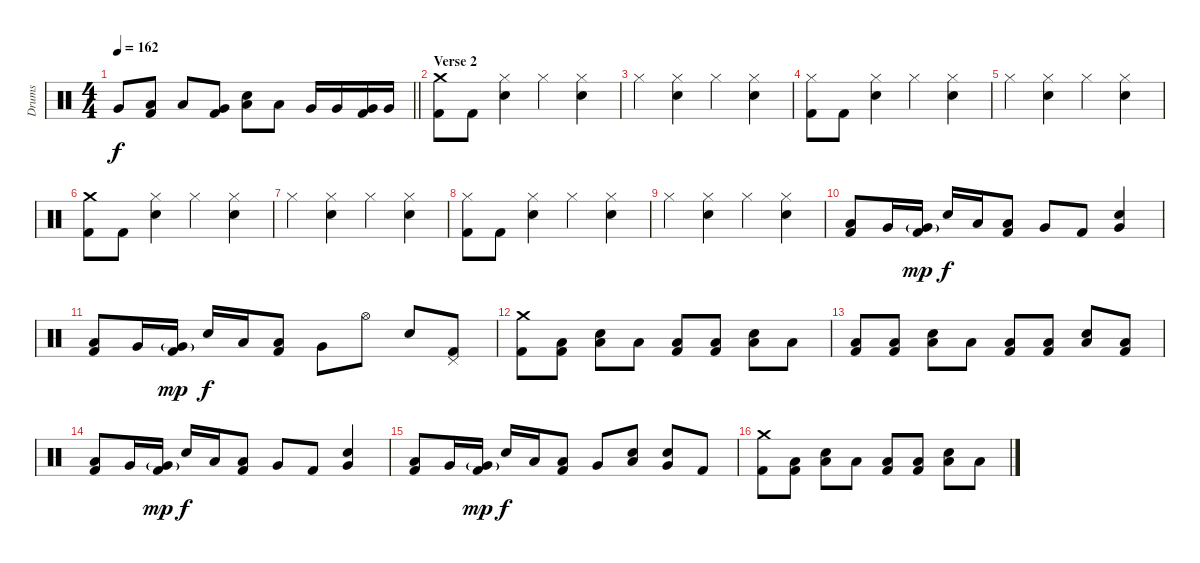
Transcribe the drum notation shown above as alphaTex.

\track ("Drums" "Drums") {instrument percussion}
\staff {score}
\articulation defaults
\ts (4 4)
\tempo 162
\clef neutral
\barLineRight lightlight
\ks c "Very Low Tom (hit)".8{dy f}
("Low Tom (hit)" "Kick (hit) 2").8 "Low Floor Tom (hit)".8 ("Very Low Tom (hit)" "Kick (hit) 2").8 ("Low Floor Tom (hit)" "Electric Snare (hit)").8 "Low Floor Tom (hit)".8 "Very Low Tom (hit)".16 "Very Low Tom (hit)".16 ("Very Low Tom (hit)" "Kick (hit) 2").16 "Very Low Tom (hit)".16 |
\section ("" "Verse 2")
("Crash medium (hit)" "Kick (hit) 2").8 "Kick (hit) 2".8 ("Hi-Hat (closed)" "Electric Snare (hit)").4 "Hi-Hat (closed)".4 ("Hi-Hat (closed)" "Electric Snare (hit)").4 |
"Hi-Hat (closed)".4 ("Hi-Hat (closed)" "Electric Snare (hit)").4 "Hi-Hat (closed)".4 ("Hi-Hat (closed)" "Electric Snare (hit)").4 |
("Hi-Hat (closed)" "Kick (hit) 2").8 "Kick (hit) 2".8 ("Hi-Hat (closed)" "Electric Snare (hit)").4 "Hi-Hat (closed)".4 ("Hi-Hat (closed)" "Electric Snare (hit)").4 |
"Hi-Hat (closed)".4 ("Hi-Hat (closed)" "Electric Snare (hit)").4 "Hi-Hat (closed)".4 ("Hi-Hat (closed)" "Electric Snare (hit)").4 |
("Crash medium (hit)" "Kick (hit) 2").8 "Kick (hit) 2".8 ("Hi-Hat (closed)" "Electric Snare (hit)").4 "Hi-Hat (closed)".4 ("Hi-Hat (closed)" "Electric Snare (hit)").4 |
"Hi-Hat (closed)".4 ("Hi-Hat (closed)" "Electric Snare (hit)").4 "Hi-Hat (closed)".4 ("Hi-Hat (closed)" "Electric Snare (hit)").4 |
("Hi-Hat (closed)" "Kick (hit) 2").8 "Kick (hit) 2".8 ("Hi-Hat (closed)" "Electric Snare (hit)").4 "Hi-Hat (closed)".4 ("Hi-Hat (closed)" "Electric Snare (hit)").4 |
"Hi-Hat (closed)".4 ("Hi-Hat (closed)" "Electric Snare (hit)").4 "Hi-Hat (closed)".4 ("Hi-Hat (closed)" "Electric Snare (hit)").4 |
("Low Tom (hit)" "Kick (hit) 2").8 "Very Low Tom (hit)".16 ("Very Low Tom (hit)"{g} "Kick (hit) 2").16{dy mp} "Electric Snare (hit)".16{dy f} "Low Floor Tom (hit)".16 ("Low Floor Tom (hit)" "Kick (hit) 2").8 "Very Low Tom (hit)".8 "Kick (hit) 2".8 ("Very Low Tom (hit)" "Electric Snare (hit)").4 |
("Low Tom (hit)" "Kick (hit) 2").8 "Very Low Tom (hit)".16 ("Very Low Tom (hit)"{g} "Kick (hit) 2").16{dy mp} "Electric Snare (hit)".16{dy f} "Low Floor Tom (hit)".16 ("Low Floor Tom (hit)" "Kick (hit) 2").8 "Very Low Tom (hit)".8 "Hi-Hat (open)".8 "Electric Snare (hit)".8 ("Pedal Hi-Hat (hit)" "Kick (hit) 2").8 |
("Crash medium (hit)" "Kick (hit) 2").8 ("Low Floor Tom (hit)" "Kick (hit) 2").8 ("Low Floor Tom (hit)" "Electric Snare (hit)").8 "Low Floor Tom (hit)".8 ("Low Floor Tom (hit)" "Kick (hit) 2").8 ("Low Floor Tom (hit)" "Kick (hit) 2").8 ("Low Floor Tom (hit)" "Electric Snare (hit)").8 "Low Floor Tom (hit)".8 |
("Low Floor Tom (hit)" "Kick (hit) 2").8 ("Low Floor Tom (hit)" "Kick (hit) 2").8 ("Low Floor Tom (hit)" "Electric Snare (hit)").8 "Low Floor Tom (hit)".8 ("Low Floor Tom (hit)" "Kick (hit) 2").8 ("Low Floor Tom (hit)" "Kick (hit) 2").8 ("Low Floor Tom (hit)" "Electric Snare (hit)").8 ("Low Floor Tom (hit)" "Kick (hit) 2").8 |
("Low Tom (hit)" "Kick (hit) 2").8 "Very Low Tom (hit)".16 ("Very Low Tom (hit)"{g} "Kick (hit) 2").16{dy mp} "Electric Snare (hit)".16{dy f} "Low Floor Tom (hit)".16 ("Low Floor Tom (hit)" "Kick (hit) 2").8 "Very Low Tom (hit)".8 "Kick (hit) 2".8 ("Very Low Tom (hit)" "Electric Snare (hit)").4 |
("Low Tom (hit)" "Kick (hit) 2").8 "Very Low Tom (hit)".16 ("Very Low Tom (hit)"{g} "Kick (hit) 2").16{dy mp} "Electric Snare (hit)".16{dy f} "Low Floor Tom (hit)".16 ("Low Floor Tom (hit)" "Kick (hit) 2").8 "Very Low Tom (hit)".8 ("Low Floor Tom (hit)" "Electric Snare (hit)").8 ("Very Low Tom (hit)" "Electric Snare (hit)").8 "Kick (hit) 2".8 |
("Crash medium (hit)" "Kick (hit) 2").8 ("Low Floor Tom (hit)" "Kick (hit) 2").8 ("Low Floor Tom (hit)" "Electric Snare (hit)").8 "Low Floor Tom (hit)".8 ("Low Floor Tom (hit)" "Kick (hit) 2").8 ("Low Floor Tom (hit)" "Kick (hit) 2").8 ("Low Floor Tom (hit)" "Electric Snare (hit)").8 "Low Floor Tom (hit)".8
